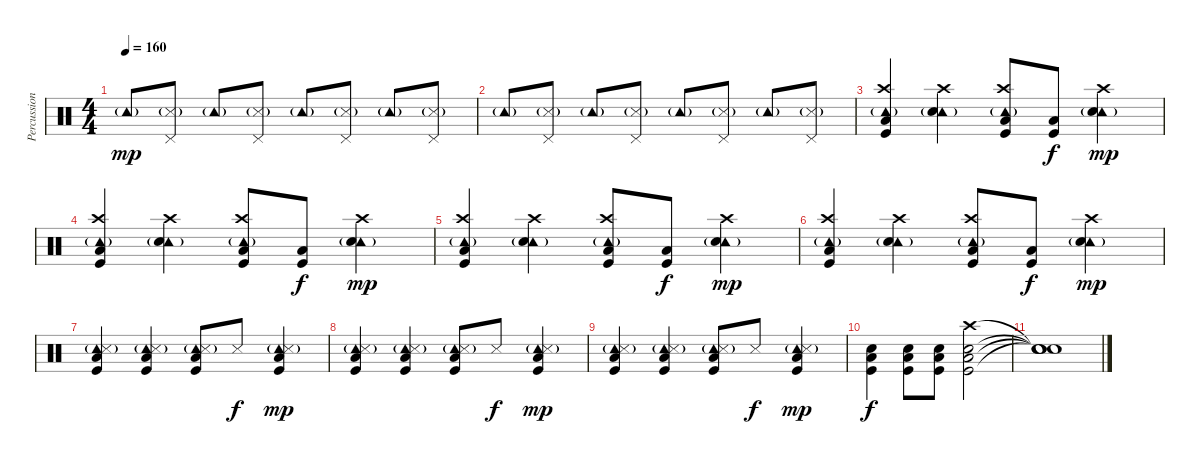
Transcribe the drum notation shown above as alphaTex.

\track ("Percussion" "Percussion") {instrument percussion}
\staff {score}
\articulation defaults
\ts (4 4)
\tempo 160
\clef neutral
\ks c "Tambourine (hit)"{g}.8{dy mp}
("Snare (side stick) 3"{g} "Pedal Hi-Hat (hit)").8 "Tambourine (hit)"{g}.8 ("Snare (side stick) 3"{g} "Pedal Hi-Hat (hit)").8 "Tambourine (hit)"{g}.8 ("Snare (side stick) 3"{g} "Pedal Hi-Hat (hit)").8 "Tambourine (hit)"{g}.8 ("Snare (side stick) 3"{g} "Pedal Hi-Hat (hit)").8 |
"Tambourine (hit)"{g}.8 ("Snare (side stick) 3"{g} "Pedal Hi-Hat (hit)").8 "Tambourine (hit)"{g}.8 ("Snare (side stick) 3"{g} "Pedal Hi-Hat (hit)").8 "Tambourine (hit)"{g}.8 ("Snare (side stick) 3"{g} "Pedal Hi-Hat (hit)").8 "Tambourine (hit)"{g}.8 ("Snare (side stick) 3"{g} "Pedal Hi-Hat (hit)").8 |
("Tambourine (hit)"{g} "Crash high (hit)" "Low Floor Tom (hit)" "Kick (hit)").4 ("Tambourine (hit)"{g} "Crash high (hit)" "Snare (hit) 2").4 ("Tambourine (hit)"{g} "Crash high (hit)" "Low Floor Tom (hit)" "Kick (hit)").8 ("Low Floor Tom (hit)" "Kick (hit)").8{dy f} ("Tambourine (hit)"{g} "Crash high (hit)" "Snare (hit) 2").4{dy mp} |
("Tambourine (hit)"{g} "Crash high (hit)" "Low Floor Tom (hit)" "Kick (hit)").4 ("Tambourine (hit)"{g} "Crash high (hit)" "Snare (hit) 2").4 ("Tambourine (hit)"{g} "Crash high (hit)" "Low Floor Tom (hit)" "Kick (hit)").8 ("Low Floor Tom (hit)" "Kick (hit)").8{dy f} ("Tambourine (hit)"{g} "Crash high (hit)" "Snare (hit) 2").4{dy mp} |
("Tambourine (hit)"{g} "Crash high (hit)" "Low Floor Tom (hit)" "Kick (hit)").4 ("Tambourine (hit)"{g} "Crash high (hit)" "Snare (hit) 2").4 ("Tambourine (hit)"{g} "Crash high (hit)" "Low Floor Tom (hit)" "Kick (hit)").8 ("Low Floor Tom (hit)" "Kick (hit)").8{dy f} ("Tambourine (hit)"{g} "Crash high (hit)" "Snare (hit) 2").4{dy mp} |
("Tambourine (hit)"{g} "Crash high (hit)" "Low Floor Tom (hit)" "Kick (hit)").4 ("Tambourine (hit)"{g} "Crash high (hit)" "Snare (hit) 2").4 ("Tambourine (hit)"{g} "Crash high (hit)" "Low Floor Tom (hit)" "Kick (hit)").8 ("Low Floor Tom (hit)" "Kick (hit)").8{dy f} ("Tambourine (hit)"{g} "Crash high (hit)" "Snare (hit) 2").4{dy mp} |
("Tambourine (hit)"{g} "Snare (side stick) 3" "Low Floor Tom (hit)" "Kick (hit)").4 ("Tambourine (hit)"{g} "Snare (side stick) 3" "Low Floor Tom (hit)" "Kick (hit)").4 ("Tambourine (hit)"{g} "Snare (side stick) 3" "Low Floor Tom (hit)" "Kick (hit)").8 "Snare (side stick) 3".8{dy f} ("Tambourine (hit)"{g} "Snare (side stick) 3" "Low Floor Tom (hit)" "Kick (hit)").4{dy mp} |
("Tambourine (hit)"{g} "Snare (side stick) 3" "Low Floor Tom (hit)" "Kick (hit)").4 ("Tambourine (hit)"{g} "Snare (side stick) 3" "Low Floor Tom (hit)" "Kick (hit)").4 ("Tambourine (hit)"{g} "Snare (side stick) 3" "Low Floor Tom (hit)" "Kick (hit)").8 "Snare (side stick) 3".8{dy f} ("Tambourine (hit)"{g} "Snare (side stick) 3" "Low Floor Tom (hit)" "Kick (hit)").4{dy mp} |
("Tambourine (hit)"{g} "Snare (side stick) 3" "Low Floor Tom (hit)" "Kick (hit)").4 ("Tambourine (hit)"{g} "Snare (side stick) 3" "Low Floor Tom (hit)" "Kick (hit)").4 ("Tambourine (hit)"{g} "Snare (side stick) 3" "Low Floor Tom (hit)" "Kick (hit)").8 "Snare (side stick) 3".8{dy f} ("Tambourine (hit)"{g} "Snare (side stick) 3" "Low Floor Tom (hit)" "Kick (hit)").4{dy mp} |
("Snare (hit) 2" "Low Floor Tom (hit)" "Kick (hit)").4{dy f} ("Snare (hit) 2" "Low Floor Tom (hit)" "Kick (hit)").8 ("Snare (hit) 2" "Low Floor Tom (hit)" "Kick (hit)").8 ("Crash high (hit)" "Snare (hit) 2" "Low Floor Tom (hit)" "Kick (hit)").2 |
("Snare (hit)"{t} "Snare (hit)"{t} "Snare (hit)"{t} "Snare (hit)"{t}).1
